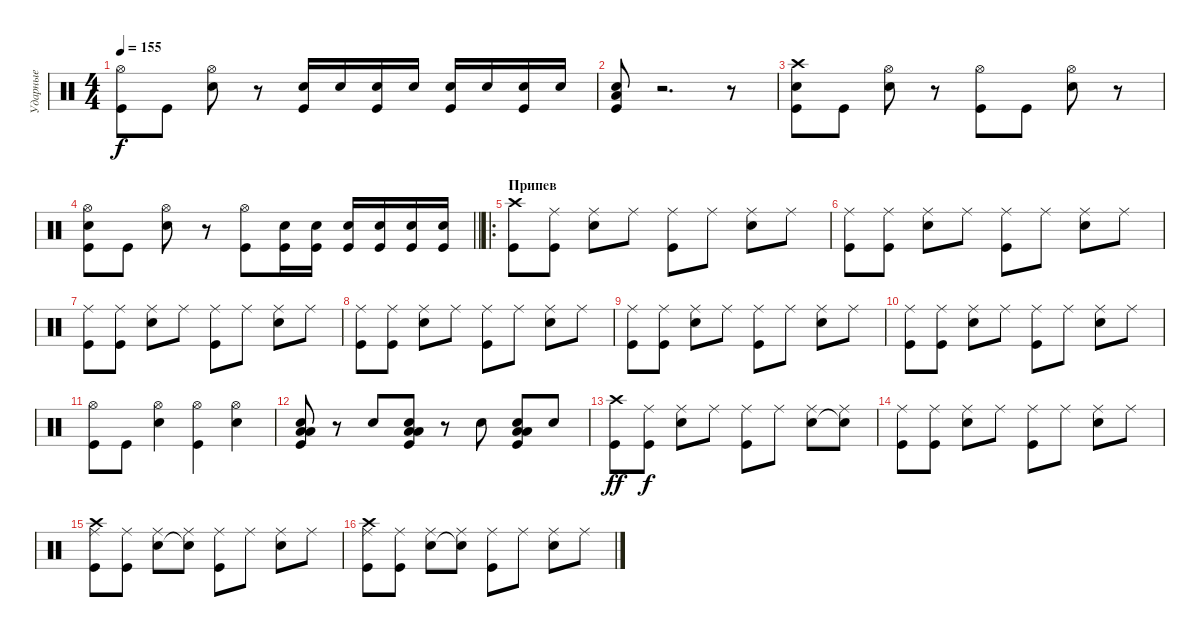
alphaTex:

\track ("Ударные" "Ударные") {instrument percussion}
\staff {score}
\articulation defaults
\ts (4 4)
\tempo 155
\clef neutral
\ks c
("Hi-Hat (open)" "Kick (hit)").8{dy f} "Kick (hit)".8 ("Hi-Hat (open)" "Snare (hit) 2").8 r.8 ("Snare (hit) 2" "Kick (hit)").16 "Snare (hit) 2".16 ("Snare (hit) 2" "Kick (hit)").16 "Snare (hit) 2".16 ("Snare (hit) 2" "Kick (hit)").16 "Snare (hit) 2".16 ("Snare (hit) 2" "Kick (hit)").16 "Snare (hit) 2".16 |
("Low Tom (hit)" "Snare (hit) 2" "Kick (hit)").8 r.2{d} r.8 |
("Crash high (hit)" "Snare (hit) 2" "Kick (hit)").8 "Kick (hit)".8 ("Hi-Hat (open)" "Snare (hit) 2").8 r.8 ("Hi-Hat (open)" "Kick (hit)").8 "Kick (hit)".8 ("Hi-Hat (open)" "Snare (hit) 2").8 r.8 |
\barLineRight lightlight
("Hi-Hat (open)" "Snare (hit) 2" "Kick (hit)").8 "Kick (hit)".8 ("Hi-Hat (open)" "Snare (hit) 2").8 r.8 ("Hi-Hat (open)" "Kick (hit)").8 ("Snare (hit) 2" "Kick (hit)").16 ("Snare (hit) 2" "Kick (hit)").16 ("Snare (hit) 2" "Kick (hit)").16 ("Snare (hit) 2" "Kick (hit)").16 ("Snare (hit) 2" "Kick (hit)").16 ("Snare (hit) 2" "Kick (hit)").16 |
\ro
\section ("" "Припев")
("Crash high (hit)" "Kick (hit)").8 ("Ride (middle)" "Kick (hit)").8 ("Ride (middle)" "Snare (hit) 2").8 "Ride (middle)".8 ("Ride (middle)" "Kick (hit)").8 "Ride (middle)".8 ("Ride (middle)" "Snare (hit) 2").8 "Ride (middle)".8 |
("Ride (middle)" "Kick (hit)").8 ("Ride (middle)" "Kick (hit)").8 ("Ride (middle)" "Snare (hit) 2").8 "Ride (middle)".8 ("Ride (middle)" "Kick (hit)").8 "Ride (middle)".8 ("Ride (middle)" "Snare (hit) 2").8 "Ride (middle)".8 |
("Ride (middle)" "Kick (hit)").8 ("Ride (middle)" "Kick (hit)").8 ("Ride (middle)" "Snare (hit) 2").8 "Ride (middle)".8 ("Ride (middle)" "Kick (hit)").8 "Ride (middle)".8 ("Ride (middle)" "Snare (hit) 2").8 "Ride (middle)".8 |
("Ride (middle)" "Kick (hit)").8 ("Ride (middle)" "Kick (hit)").8 ("Ride (middle)" "Snare (hit) 2").8 "Ride (middle)".8 ("Ride (middle)" "Kick (hit)").8 "Ride (middle)".8 ("Ride (middle)" "Snare (hit) 2").8 "Ride (middle)".8 |
("Ride (middle)" "Kick (hit)").8 ("Ride (middle)" "Kick (hit)").8 ("Ride (middle)" "Snare (hit) 2").8 "Ride (middle)".8 ("Ride (middle)" "Kick (hit)").8 "Ride (middle)".8 ("Ride (middle)" "Snare (hit) 2").8 "Ride (middle)".8 |
("Ride (middle)" "Kick (hit)").8 ("Ride (middle)" "Kick (hit)").8 ("Ride (middle)" "Snare (hit) 2").8 "Ride (middle)".8 ("Ride (middle)" "Kick (hit)").8 "Ride (middle)".8 ("Ride (middle)" "Snare (hit) 2").8 "Ride (middle)".8 |
("Hi-Hat (open)" "Kick (hit)").8 "Kick (hit)".8 ("Hi-Hat (open)" "Snare (hit) 2").4 ("Hi-Hat (open)" "Kick (hit)").4 ("Hi-Hat (open)" "Snare (hit) 2").4 |
("Low Floor Tom (hit)" "Snare (hit) 2" "Low Tom (hit)" "Kick (hit)").8 r.8 "Snare (hit) 2".8 ("Low Floor Tom (hit)" "Snare (hit) 2" "Low Tom (hit)" "Kick (hit)").8 r.8 "Snare (hit) 2".8 ("Low Floor Tom (hit)" "Snare (hit) 2" "Low Tom (hit)" "Kick (hit)").8 "Snare (hit) 2".8 |
("Crash high (hit)" "Kick (hit)").8{dy ff} ("Ride (middle)" "Kick (hit)").8{dy f} ("Ride (middle)" "Snare (hit) 2").8 "Ride (middle)".8 ("Ride (middle)" "Kick (hit)").8 "Ride (middle)".8 ("Ride (middle)" "Snare (hit) 2").8 ("Ride (middle)" "Snare (hit)"{t}).8 |
("Ride (middle)" "Kick (hit)").8 ("Ride (middle)" "Kick (hit)").8 ("Ride (middle)" "Snare (hit) 2").8 "Ride (middle)".8 ("Ride (middle)" "Kick (hit)").8 "Ride (middle)".8 ("Ride (middle)" "Snare (hit) 2").8 "Ride (middle)".8 |
("Ride (middle)" "Crash high (hit)" "Kick (hit)").8 ("Ride (middle)" "Kick (hit)").8 ("Ride (middle)" "Snare (hit) 2").8 ("Ride (middle)" "Snare (hit)"{t}).8 ("Ride (middle)" "Kick (hit)").8 "Ride (middle)".8 ("Ride (middle)" "Snare (hit) 2").8 "Ride (middle)".8 |
("Ride (middle)" "Crash high (hit)" "Kick (hit)").8 ("Ride (middle)" "Kick (hit)").8 ("Ride (middle)" "Snare (hit) 2").8 ("Ride (middle)" "Snare (hit)"{t}).8 ("Ride (middle)" "Kick (hit)").8 "Ride (middle)".8 ("Ride (middle)" "Snare (hit) 2").8 "Ride (middle)".8
